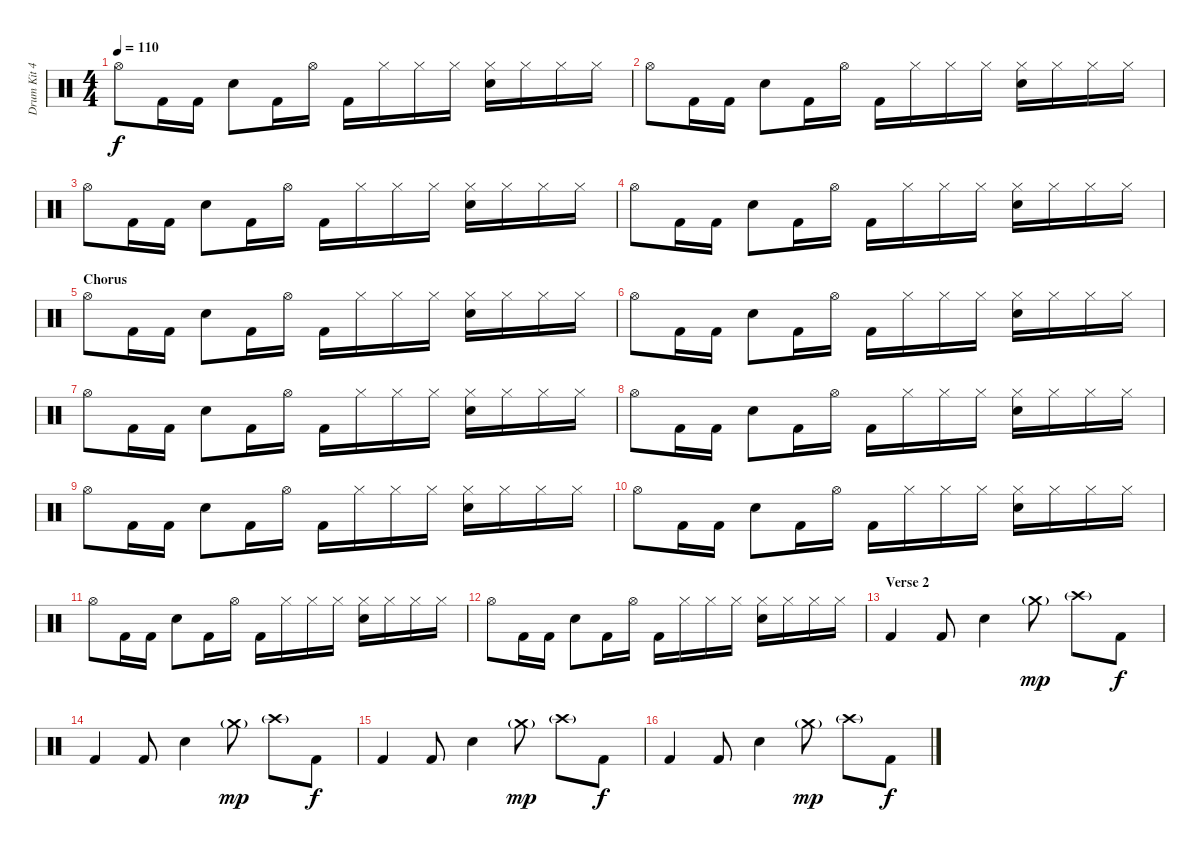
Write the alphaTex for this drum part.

\track ("Drum Kit 42" "Drum Kit 4") {instrument percussion}
\staff {score}
\articulation defaults
\ts (4 4)
\tempo 110
\clef neutral
\ks c "Hi-Hat (open)".8{dy f} "Kick (hit) 2".16 "Kick (hit) 2".16 "Snare (hit) 2".8 "Kick (hit) 2".16 "Hi-Hat (open)".16 "Kick (hit) 2".16 "Hi-Hat (closed)".16 "Hi-Hat (closed)".16 "Hi-Hat (closed)".16
("Hi-Hat (closed)" "Snare (hit) 2").16 "Hi-Hat (closed)".16 "Hi-Hat (closed)".16 "Hi-Hat (closed)".16 |
"Hi-Hat (open)".8 "Kick (hit) 2".16 "Kick (hit) 2".16 "Snare (hit) 2".8 "Kick (hit) 2".16 "Hi-Hat (open)".16 "Kick (hit) 2".16 "Hi-Hat (closed)".16 "Hi-Hat (closed)".16 "Hi-Hat (closed)".16 ("Hi-Hat (closed)" "Snare (hit) 2").16 "Hi-Hat (closed)".16 "Hi-Hat (closed)".16 "Hi-Hat (closed)".16 |
"Hi-Hat (open)".8 "Kick (hit) 2".16 "Kick (hit) 2".16 "Snare (hit) 2".8 "Kick (hit) 2".16 "Hi-Hat (open)".16 "Kick (hit) 2".16 "Hi-Hat (closed)".16 "Hi-Hat (closed)".16 "Hi-Hat (closed)".16 ("Hi-Hat (closed)" "Snare (hit) 2").16 "Hi-Hat (closed)".16 "Hi-Hat (closed)".16 "Hi-Hat (closed)".16 |
"Hi-Hat (open)".8 "Kick (hit) 2".16 "Kick (hit) 2".16 "Snare (hit) 2".8 "Kick (hit) 2".16 "Hi-Hat (open)".16 "Kick (hit) 2".16 "Hi-Hat (closed)".16 "Hi-Hat (closed)".16 "Hi-Hat (closed)".16 ("Hi-Hat (closed)" "Snare (hit) 2").16 "Hi-Hat (closed)".16 "Hi-Hat (closed)".16 "Hi-Hat (closed)".16 |
\section ("" "Chorus")
"Hi-Hat (open)".8 "Kick (hit) 2".16 "Kick (hit) 2".16 "Snare (hit) 2".8 "Kick (hit) 2".16 "Hi-Hat (open)".16 "Kick (hit) 2".16 "Hi-Hat (closed)".16 "Hi-Hat (closed)".16 "Hi-Hat (closed)".16 ("Hi-Hat (closed)" "Snare (hit) 2").16 "Hi-Hat (closed)".16 "Hi-Hat (closed)".16 "Hi-Hat (closed)".16 |
"Hi-Hat (open)".8 "Kick (hit) 2".16 "Kick (hit) 2".16 "Snare (hit) 2".8 "Kick (hit) 2".16 "Hi-Hat (open)".16 "Kick (hit) 2".16 "Hi-Hat (closed)".16 "Hi-Hat (closed)".16 "Hi-Hat (closed)".16 ("Hi-Hat (closed)" "Snare (hit) 2").16 "Hi-Hat (closed)".16 "Hi-Hat (closed)".16 "Hi-Hat (closed)".16 |
"Hi-Hat (open)".8 "Kick (hit) 2".16 "Kick (hit) 2".16 "Snare (hit) 2".8 "Kick (hit) 2".16 "Hi-Hat (open)".16 "Kick (hit) 2".16 "Hi-Hat (closed)".16 "Hi-Hat (closed)".16 "Hi-Hat (closed)".16 ("Hi-Hat (closed)" "Snare (hit) 2").16 "Hi-Hat (closed)".16 "Hi-Hat (closed)".16 "Hi-Hat (closed)".16 |
"Hi-Hat (open)".8 "Kick (hit) 2".16 "Kick (hit) 2".16 "Snare (hit) 2".8 "Kick (hit) 2".16 "Hi-Hat (open)".16 "Kick (hit) 2".16 "Hi-Hat (closed)".16 "Hi-Hat (closed)".16 "Hi-Hat (closed)".16 ("Hi-Hat (closed)" "Snare (hit) 2").16 "Hi-Hat (closed)".16 "Hi-Hat (closed)".16 "Hi-Hat (closed)".16 |
"Hi-Hat (open)".8 "Kick (hit) 2".16 "Kick (hit) 2".16 "Snare (hit) 2".8 "Kick (hit) 2".16 "Hi-Hat (open)".16 "Kick (hit) 2".16 "Hi-Hat (closed)".16 "Hi-Hat (closed)".16 "Hi-Hat (closed)".16 ("Hi-Hat (closed)" "Snare (hit) 2").16 "Hi-Hat (closed)".16 "Hi-Hat (closed)".16 "Hi-Hat (closed)".16 |
"Hi-Hat (open)".8 "Kick (hit) 2".16 "Kick (hit) 2".16 "Snare (hit) 2".8 "Kick (hit) 2".16 "Hi-Hat (open)".16 "Kick (hit) 2".16 "Hi-Hat (closed)".16 "Hi-Hat (closed)".16 "Hi-Hat (closed)".16 ("Hi-Hat (closed)" "Snare (hit) 2").16 "Hi-Hat (closed)".16 "Hi-Hat (closed)".16 "Hi-Hat (closed)".16 |
"Hi-Hat (open)".8 "Kick (hit) 2".16 "Kick (hit) 2".16 "Snare (hit) 2".8 "Kick (hit) 2".16 "Hi-Hat (open)".16 "Kick (hit) 2".16 "Hi-Hat (closed)".16 "Hi-Hat (closed)".16 "Hi-Hat (closed)".16 ("Hi-Hat (closed)" "Snare (hit) 2").16 "Hi-Hat (closed)".16 "Hi-Hat (closed)".16 "Hi-Hat (closed)".16 |
"Hi-Hat (open)".8 "Kick (hit) 2".16 "Kick (hit) 2".16 "Snare (hit) 2".8 "Kick (hit) 2".16 "Hi-Hat (open)".16 "Kick (hit) 2".16 "Hi-Hat (closed)".16 "Hi-Hat (closed)".16 "Hi-Hat (closed)".16 ("Hi-Hat (closed)" "Snare (hit) 2").16 "Hi-Hat (closed)".16 "Hi-Hat (closed)".16 "Hi-Hat (closed)".16 |
\section ("" "Verse 2")
"Kick (hit) 2".4 "Kick (hit) 2".8 "Snare (hit) 2".4 "Crash medium (hit)"{g}.8{dy mp} "Crash high (hit)"{g}.8 "Kick (hit) 2".8{dy f} |
"Kick (hit) 2".4 "Kick (hit) 2".8 "Snare (hit) 2".4 "Crash medium (hit)"{g}.8{dy mp} "Crash high (hit)"{g}.8 "Kick (hit) 2".8{dy f} |
"Kick (hit) 2".4 "Kick (hit) 2".8 "Snare (hit) 2".4 "Crash medium (hit)"{g}.8{dy mp} "Crash high (hit)"{g}.8 "Kick (hit) 2".8{dy f} |
"Kick (hit) 2".4 "Kick (hit) 2".8 "Snare (hit) 2".4 "Crash medium (hit)"{g}.8{dy mp} "Crash high (hit)"{g}.8 "Kick (hit) 2".8{dy f}
